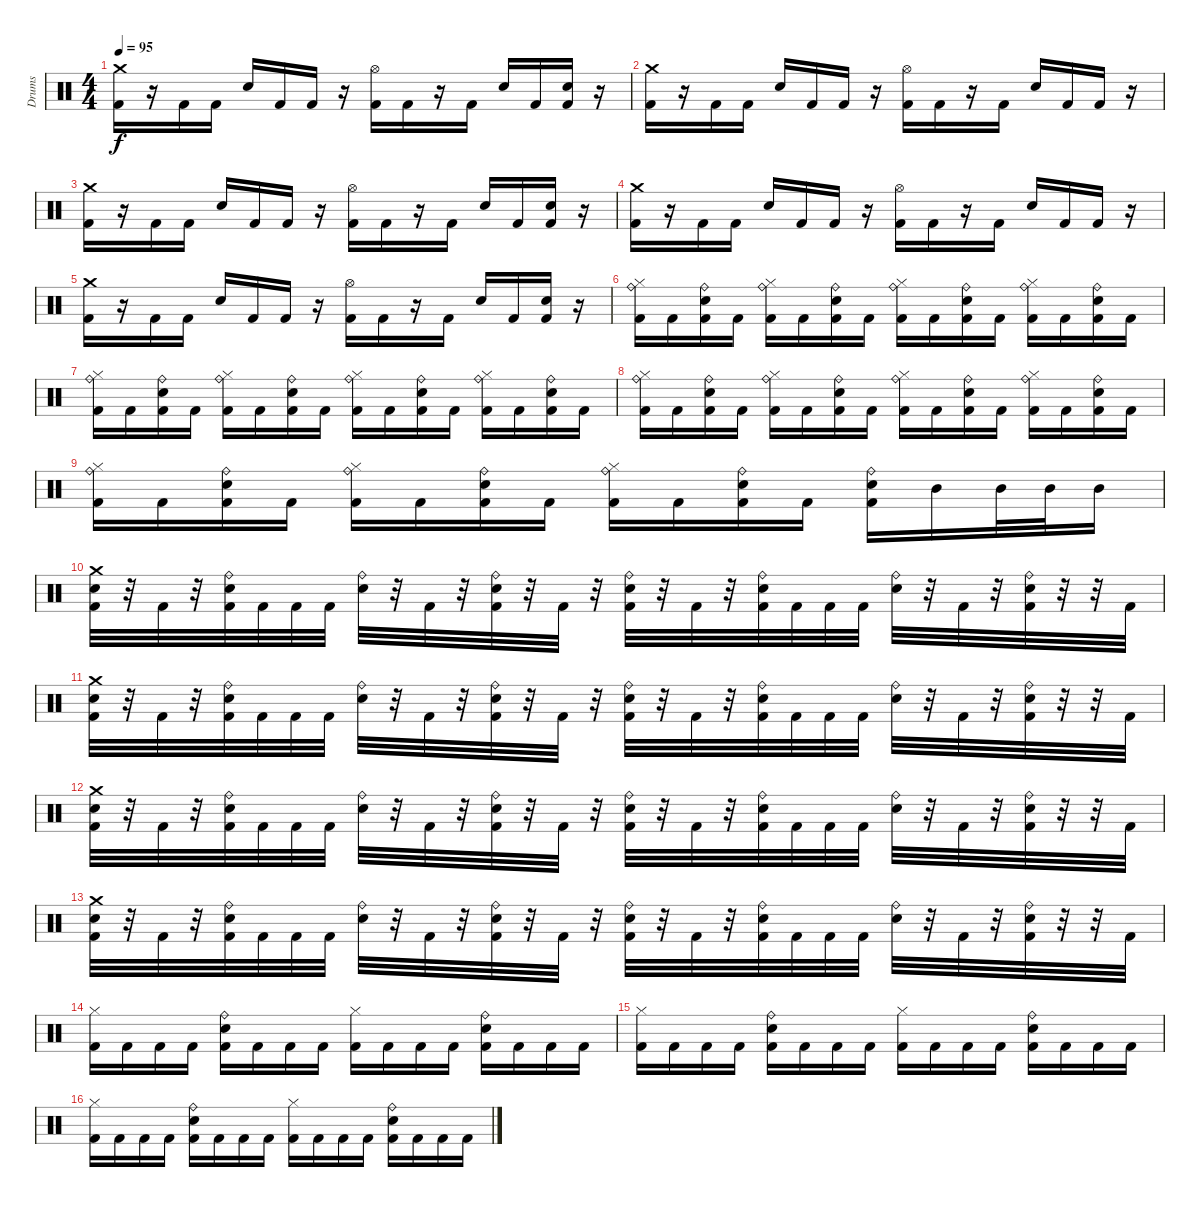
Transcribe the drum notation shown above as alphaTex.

\track ("Drums" "Drums") {instrument percussion}
\staff {score}
\articulation defaults
\ts (4 4)
\tempo 95
\clef neutral
\ks c
("Kick (hit) 2" "Crash medium (hit)").16{dy f} r.16 "Kick (hit) 2".16 "Kick (hit) 2".16 "Snare (hit) 2".16 "Kick (hit) 2".16 "Kick (hit) 2".16 r.16 ("Kick (hit) 2" "Hi-Hat (open)").16 "Kick (hit) 2".16 r.16 "Kick (hit) 2".16 "Snare (hit) 2".16 "Kick (hit) 2".16 ("Kick (hit) 2" "Snare (hit) 2").16 r.16 |
("Kick (hit) 2" "Crash medium (hit)").16 r.16 "Kick (hit) 2".16 "Kick (hit) 2".16 "Snare (hit) 2".16 "Kick (hit) 2".16 "Kick (hit) 2".16 r.16 ("Kick (hit) 2" "Hi-Hat (open)").16 "Kick (hit) 2".16 r.16 "Kick (hit) 2".16 "Snare (hit) 2".16 "Kick (hit) 2".16 "Kick (hit) 2".16 r.16 |
("Kick (hit) 2" "Crash medium (hit)").16 r.16 "Kick (hit) 2".16 "Kick (hit) 2".16 "Snare (hit) 2".16 "Kick (hit) 2".16 "Kick (hit) 2".16 r.16 ("Kick (hit) 2" "Hi-Hat (open)").16 "Kick (hit) 2".16 r.16 "Kick (hit) 2".16 "Snare (hit) 2".16 "Kick (hit) 2".16 ("Kick (hit) 2" "Snare (hit) 2").16 r.16 |
("Kick (hit) 2" "Crash medium (hit)").16 r.16 "Kick (hit) 2".16 "Kick (hit) 2".16 "Snare (hit) 2".16 "Kick (hit) 2".16 "Kick (hit) 2".16 r.16 ("Kick (hit) 2" "Hi-Hat (open)").16 "Kick (hit) 2".16 r.16 "Kick (hit) 2".16 "Snare (hit) 2".16 "Kick (hit) 2".16 "Kick (hit) 2".16 r.16 |
("Kick (hit) 2" "Crash medium (hit)").16 r.16 "Kick (hit) 2".16 "Kick (hit) 2".16 "Snare (hit) 2".16 "Kick (hit) 2".16 "Kick (hit) 2".16 r.16 ("Kick (hit) 2" "Hi-Hat (open)").16 "Kick (hit) 2".16 r.16 "Kick (hit) 2".16 "Snare (hit) 2".16 "Kick (hit) 2".16 ("Kick (hit) 2" "Snare (hit) 2").16 r.16 |
("Kick (hit) 2" "Hi-Hat (closed)" "Ride (bell)").16 "Kick (hit) 2".16 ("Kick (hit) 2" "Snare (hit) 2" "Ride (bell)").16 "Kick (hit) 2".16 ("Kick (hit) 2" "Hi-Hat (closed)" "Ride (bell)").16 "Kick (hit) 2".16 ("Kick (hit) 2" "Snare (hit) 2" "Ride (bell)").16 "Kick (hit) 2".16 ("Kick (hit) 2" "Hi-Hat (closed)" "Ride (bell)").16 "Kick (hit) 2".16 ("Kick (hit) 2" "Snare (hit) 2" "Ride (bell)").16 "Kick (hit) 2".16 ("Kick (hit) 2" "Hi-Hat (closed)" "Ride (bell)").16 "Kick (hit) 2".16 ("Kick (hit) 2" "Snare (hit) 2" "Ride (bell)").16 "Kick (hit) 2".16 |
("Kick (hit) 2" "Hi-Hat (closed)" "Ride (bell)").16 "Kick (hit) 2".16 ("Kick (hit) 2" "Snare (hit) 2" "Ride (bell)").16 "Kick (hit) 2".16 ("Kick (hit) 2" "Hi-Hat (closed)" "Ride (bell)").16 "Kick (hit) 2".16 ("Kick (hit) 2" "Snare (hit) 2" "Ride (bell)").16 "Kick (hit) 2".16 ("Kick (hit) 2" "Hi-Hat (closed)" "Ride (bell)").16 "Kick (hit) 2".16 ("Kick (hit) 2" "Snare (hit) 2" "Ride (bell)").16 "Kick (hit) 2".16 ("Kick (hit) 2" "Hi-Hat (closed)" "Ride (bell)").16 "Kick (hit) 2".16 ("Kick (hit) 2" "Snare (hit) 2" "Ride (bell)").16 "Kick (hit) 2".16 |
("Kick (hit) 2" "Hi-Hat (closed)" "Ride (bell)").16 "Kick (hit) 2".16 ("Kick (hit) 2" "Snare (hit) 2" "Ride (bell)").16 "Kick (hit) 2".16 ("Kick (hit) 2" "Hi-Hat (closed)" "Ride (bell)").16 "Kick (hit) 2".16 ("Kick (hit) 2" "Snare (hit) 2" "Ride (bell)").16 "Kick (hit) 2".16 ("Kick (hit) 2" "Hi-Hat (closed)" "Ride (bell)").16 "Kick (hit) 2".16 ("Kick (hit) 2" "Snare (hit) 2" "Ride (bell)").16 "Kick (hit) 2".16 ("Kick (hit) 2" "Hi-Hat (closed)" "Ride (bell)").16 "Kick (hit) 2".16 ("Kick (hit) 2" "Snare (hit) 2" "Ride (bell)").16 "Kick (hit) 2".16 |
("Kick (hit) 2" "Hi-Hat (closed)" "Ride (bell)").16 "Kick (hit) 2".16 ("Kick (hit) 2" "Snare (hit) 2" "Ride (bell)").16 "Kick (hit) 2".16 ("Kick (hit) 2" "Hi-Hat (closed)" "Ride (bell)").16 "Kick (hit) 2".16 ("Kick (hit) 2" "Snare (hit) 2" "Ride (bell)").16 "Kick (hit) 2".16 ("Kick (hit) 2" "Hi-Hat (closed)" "Ride (bell)").16 "Kick (hit) 2".16 ("Kick (hit) 2" "Snare (hit) 2" "Ride (bell)").16 "Kick (hit) 2".16 ("Kick (hit) 2" "Snare (hit) 2" "Ride (bell)").16 "Mid Tom (hit)".16 "Mid Tom (hit)".32 "Mid Tom (hit)".32 "Mid Tom (hit)".16 |
("Kick (hit) 2" "Snare (hit) 2" "Crash medium (hit)").32 r.32 "Kick (hit) 2".32 r.32 ("Kick (hit) 2" "Snare (hit) 2" "Ride (bell)").32 "Kick (hit) 2".32 "Kick (hit) 2".32 "Kick (hit) 2".32 ("Snare (hit) 2" "Ride (bell)").32 r.32 "Kick (hit) 2".32 r.32 ("Kick (hit) 2" "Snare (hit) 2" "Ride (bell)").32 r.32 "Kick (hit) 2".32 r.32 ("Kick (hit) 2" "Snare (hit) 2" "Ride (bell)").32 r.32 "Kick (hit) 2".32 r.32 ("Kick (hit) 2" "Snare (hit) 2" "Ride (bell)").32 "Kick (hit) 2".32 "Kick (hit) 2".32 "Kick (hit) 2".32 ("Snare (hit) 2" "Ride (bell)").32 r.32 "Kick (hit) 2".32 r.32 ("Kick (hit) 2" "Snare (hit) 2" "Ride (bell)").32 r.32 r.32 "Kick (hit) 2".32 |
("Kick (hit) 2" "Snare (hit) 2" "Crash medium (hit)").32 r.32 "Kick (hit) 2".32 r.32 ("Kick (hit) 2" "Snare (hit) 2" "Ride (bell)").32 "Kick (hit) 2".32 "Kick (hit) 2".32 "Kick (hit) 2".32 ("Snare (hit) 2" "Ride (bell)").32 r.32 "Kick (hit) 2".32 r.32 ("Kick (hit) 2" "Snare (hit) 2" "Ride (bell)").32 r.32 "Kick (hit) 2".32 r.32 ("Kick (hit) 2" "Snare (hit) 2" "Ride (bell)").32 r.32 "Kick (hit) 2".32 r.32 ("Kick (hit) 2" "Snare (hit) 2" "Ride (bell)").32 "Kick (hit) 2".32 "Kick (hit) 2".32 "Kick (hit) 2".32 ("Snare (hit) 2" "Ride (bell)").32 r.32 "Kick (hit) 2".32 r.32 ("Kick (hit) 2" "Snare (hit) 2" "Ride (bell)").32 r.32 r.32 "Kick (hit) 2".32 |
("Kick (hit) 2" "Snare (hit) 2" "Crash medium (hit)").32 r.32 "Kick (hit) 2".32 r.32 ("Kick (hit) 2" "Snare (hit) 2" "Ride (bell)").32 "Kick (hit) 2".32 "Kick (hit) 2".32 "Kick (hit) 2".32 ("Snare (hit) 2" "Ride (bell)").32 r.32 "Kick (hit) 2".32 r.32 ("Kick (hit) 2" "Snare (hit) 2" "Ride (bell)").32 r.32 "Kick (hit) 2".32 r.32 ("Kick (hit) 2" "Snare (hit) 2" "Ride (bell)").32 r.32 "Kick (hit) 2".32 r.32 ("Kick (hit) 2" "Snare (hit) 2" "Ride (bell)").32 "Kick (hit) 2".32 "Kick (hit) 2".32 "Kick (hit) 2".32 ("Snare (hit) 2" "Ride (bell)").32 r.32 "Kick (hit) 2".32 r.32 ("Kick (hit) 2" "Snare (hit) 2" "Ride (bell)").32 r.32 r.32 "Kick (hit) 2".32 |
("Kick (hit) 2" "Snare (hit) 2" "Crash medium (hit)").32 r.32 "Kick (hit) 2".32 r.32 ("Kick (hit) 2" "Snare (hit) 2" "Ride (bell)").32 "Kick (hit) 2".32 "Kick (hit) 2".32 "Kick (hit) 2".32 ("Snare (hit) 2" "Ride (bell)").32 r.32 "Kick (hit) 2".32 r.32 ("Kick (hit) 2" "Snare (hit) 2" "Ride (bell)").32 r.32 "Kick (hit) 2".32 r.32 ("Kick (hit) 2" "Snare (hit) 2" "Ride (bell)").32 r.32 "Kick (hit) 2".32 r.32 ("Kick (hit) 2" "Snare (hit) 2" "Ride (bell)").32 "Kick (hit) 2".32 "Kick (hit) 2".32 "Kick (hit) 2".32 ("Snare (hit) 2" "Ride (bell)").32 r.32 "Kick (hit) 2".32 r.32 ("Kick (hit) 2" "Snare (hit) 2" "Ride (bell)").32 r.32 r.32 "Kick (hit) 2".32 |
("Kick (hit) 2" "Hi-Hat (closed)").16 "Kick (hit) 2".16 "Kick (hit) 2".16 "Kick (hit) 2".16 ("Kick (hit) 2" "Snare (hit) 2" "Ride (bell)").16 "Kick (hit) 2".16 "Kick (hit) 2".16 "Kick (hit) 2".16 ("Kick (hit) 2" "Hi-Hat (closed)").16 "Kick (hit) 2".16 "Kick (hit) 2".16 "Kick (hit) 2".16 ("Kick (hit) 2" "Snare (hit) 2" "Ride (bell)").16 "Kick (hit) 2".16 "Kick (hit) 2".16 "Kick (hit) 2".16 |
("Kick (hit) 2" "Hi-Hat (closed)").16 "Kick (hit) 2".16 "Kick (hit) 2".16 "Kick (hit) 2".16 ("Kick (hit) 2" "Snare (hit) 2" "Ride (bell)").16 "Kick (hit) 2".16 "Kick (hit) 2".16 "Kick (hit) 2".16 ("Kick (hit) 2" "Hi-Hat (closed)").16 "Kick (hit) 2".16 "Kick (hit) 2".16 "Kick (hit) 2".16 ("Kick (hit) 2" "Snare (hit) 2" "Ride (bell)").16 "Kick (hit) 2".16 "Kick (hit) 2".16 "Kick (hit) 2".16 |
("Kick (hit) 2" "Hi-Hat (closed)").16 "Kick (hit) 2".16 "Kick (hit) 2".16 "Kick (hit) 2".16 ("Kick (hit) 2" "Snare (hit) 2" "Ride (bell)").16 "Kick (hit) 2".16 "Kick (hit) 2".16 "Kick (hit) 2".16 ("Kick (hit) 2" "Hi-Hat (closed)").16 "Kick (hit) 2".16 "Kick (hit) 2".16 "Kick (hit) 2".16 ("Kick (hit) 2" "Snare (hit) 2" "Ride (bell)").16 "Kick (hit) 2".16 "Kick (hit) 2".16 "Kick (hit) 2".16
